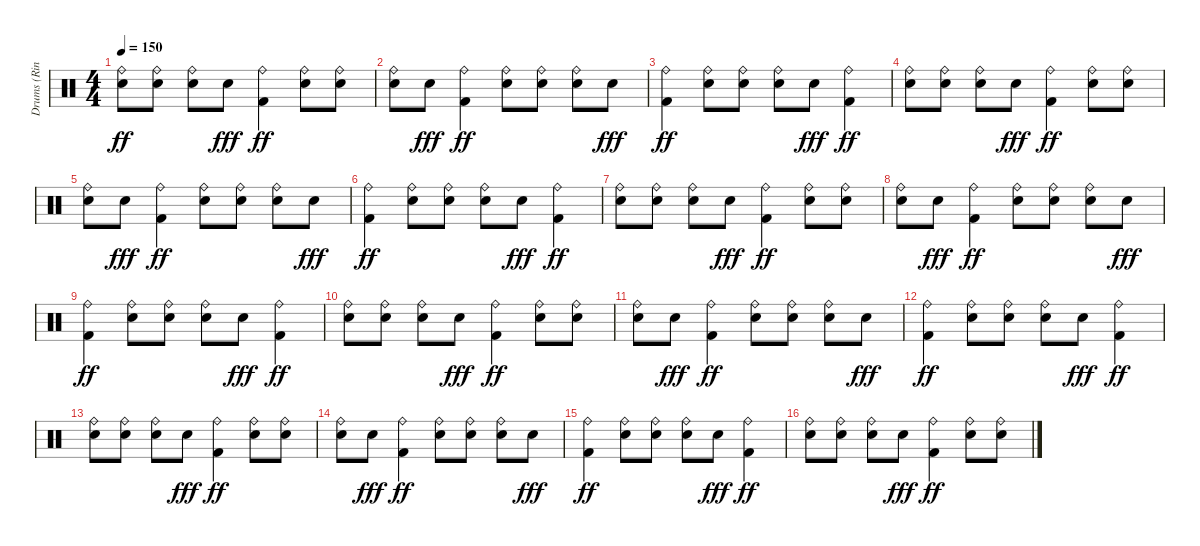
\track ("Drums (Ringo Starr)" "Drums (Rin") {instrument percussion}
\staff {score}
\articulation defaults
\ts (4 4)
\tempo 150
\clef neutral
\ks c
("Snare (hit) 2" "Ride (bell)").8{dy ff} ("Ride (bell)" "Snare (hit) 2").8 ("Snare (hit) 2" "Ride (bell)").8 "Snare (hit) 2".8{dy fff} ("Kick (hit) 2" "Ride (bell)").4{dy ff} ("Snare (hit) 2" "Ride (bell)").8 ("Ride (bell)" "Snare (hit) 2").8 |
("Snare (hit) 2" "Ride (bell)").8 "Snare (hit) 2".8{dy fff} ("Kick (hit) 2" "Ride (bell)").4{dy ff} ("Snare (hit) 2" "Ride (bell)").8 ("Ride (bell)" "Snare (hit) 2").8 ("Snare (hit) 2" "Ride (bell)").8 "Snare (hit) 2".8{dy fff} |
("Kick (hit) 2" "Ride (bell)").4{dy ff} ("Snare (hit) 2" "Ride (bell)").8 ("Ride (bell)" "Snare (hit) 2").8 ("Snare (hit) 2" "Ride (bell)").8 "Snare (hit) 2".8{dy fff} ("Kick (hit) 2" "Ride (bell)").4{dy ff} |
("Snare (hit) 2" "Ride (bell)").8 ("Ride (bell)" "Snare (hit) 2").8 ("Snare (hit) 2" "Ride (bell)").8 "Snare (hit) 2".8{dy fff} ("Kick (hit) 2" "Ride (bell)").4{dy ff} ("Snare (hit) 2" "Ride (bell)").8 ("Ride (bell)" "Snare (hit) 2").8 |
("Snare (hit) 2" "Ride (bell)").8 "Snare (hit) 2".8{dy fff} ("Kick (hit) 2" "Ride (bell)").4{dy ff} ("Snare (hit) 2" "Ride (bell)").8 ("Ride (bell)" "Snare (hit) 2").8 ("Snare (hit) 2" "Ride (bell)").8 "Snare (hit) 2".8{dy fff} |
("Kick (hit) 2" "Ride (bell)").4{dy ff} ("Snare (hit) 2" "Ride (bell)").8 ("Ride (bell)" "Snare (hit) 2").8 ("Snare (hit) 2" "Ride (bell)").8 "Snare (hit) 2".8{dy fff} ("Kick (hit) 2" "Ride (bell)").4{dy ff} |
("Snare (hit) 2" "Ride (bell)").8 ("Ride (bell)" "Snare (hit) 2").8 ("Snare (hit) 2" "Ride (bell)").8 "Snare (hit) 2".8{dy fff} ("Kick (hit) 2" "Ride (bell)").4{dy ff} ("Snare (hit) 2" "Ride (bell)").8 ("Ride (bell)" "Snare (hit) 2").8 |
("Snare (hit) 2" "Ride (bell)").8 "Snare (hit) 2".8{dy fff} ("Kick (hit) 2" "Ride (bell)").4{dy ff} ("Snare (hit) 2" "Ride (bell)").8 ("Ride (bell)" "Snare (hit) 2").8 ("Snare (hit) 2" "Ride (bell)").8 "Snare (hit) 2".8{dy fff} |
("Kick (hit) 2" "Ride (bell)").4{dy ff} ("Snare (hit) 2" "Ride (bell)").8 ("Ride (bell)" "Snare (hit) 2").8 ("Snare (hit) 2" "Ride (bell)").8 "Snare (hit) 2".8{dy fff} ("Kick (hit) 2" "Ride (bell)").4{dy ff} |
("Snare (hit) 2" "Ride (bell)").8 ("Ride (bell)" "Snare (hit) 2").8 ("Snare (hit) 2" "Ride (bell)").8 "Snare (hit) 2".8{dy fff} ("Kick (hit) 2" "Ride (bell)").4{dy ff} ("Snare (hit) 2" "Ride (bell)").8 ("Ride (bell)" "Snare (hit) 2").8 |
("Snare (hit) 2" "Ride (bell)").8 "Snare (hit) 2".8{dy fff} ("Kick (hit) 2" "Ride (bell)").4{dy ff} ("Snare (hit) 2" "Ride (bell)").8 ("Ride (bell)" "Snare (hit) 2").8 ("Snare (hit) 2" "Ride (bell)").8 "Snare (hit) 2".8{dy fff} |
("Kick (hit) 2" "Ride (bell)").4{dy ff} ("Snare (hit) 2" "Ride (bell)").8 ("Ride (bell)" "Snare (hit) 2").8 ("Snare (hit) 2" "Ride (bell)").8 "Snare (hit) 2".8{dy fff} ("Kick (hit) 2" "Ride (bell)").4{dy ff} |
("Snare (hit) 2" "Ride (bell)").8 ("Ride (bell)" "Snare (hit) 2").8 ("Snare (hit) 2" "Ride (bell)").8 "Snare (hit) 2".8{dy fff} ("Kick (hit) 2" "Ride (bell)").4{dy ff} ("Snare (hit) 2" "Ride (bell)").8 ("Ride (bell)" "Snare (hit) 2").8 |
("Snare (hit) 2" "Ride (bell)").8 "Snare (hit) 2".8{dy fff} ("Kick (hit) 2" "Ride (bell)").4{dy ff} ("Snare (hit) 2" "Ride (bell)").8 ("Ride (bell)" "Snare (hit) 2").8 ("Snare (hit) 2" "Ride (bell)").8 "Snare (hit) 2".8{dy fff} |
("Kick (hit) 2" "Ride (bell)").4{dy ff} ("Snare (hit) 2" "Ride (bell)").8 ("Ride (bell)" "Snare (hit) 2").8 ("Snare (hit) 2" "Ride (bell)").8 "Snare (hit) 2".8{dy fff} ("Kick (hit) 2" "Ride (bell)").4{dy ff} |
("Snare (hit) 2" "Ride (bell)").8 ("Ride (bell)" "Snare (hit) 2").8 ("Snare (hit) 2" "Ride (bell)").8 "Snare (hit) 2".8{dy fff} ("Kick (hit) 2" "Ride (bell)").4{dy ff} ("Snare (hit) 2" "Ride (bell)").8 ("Ride (bell)" "Snare (hit) 2").8
